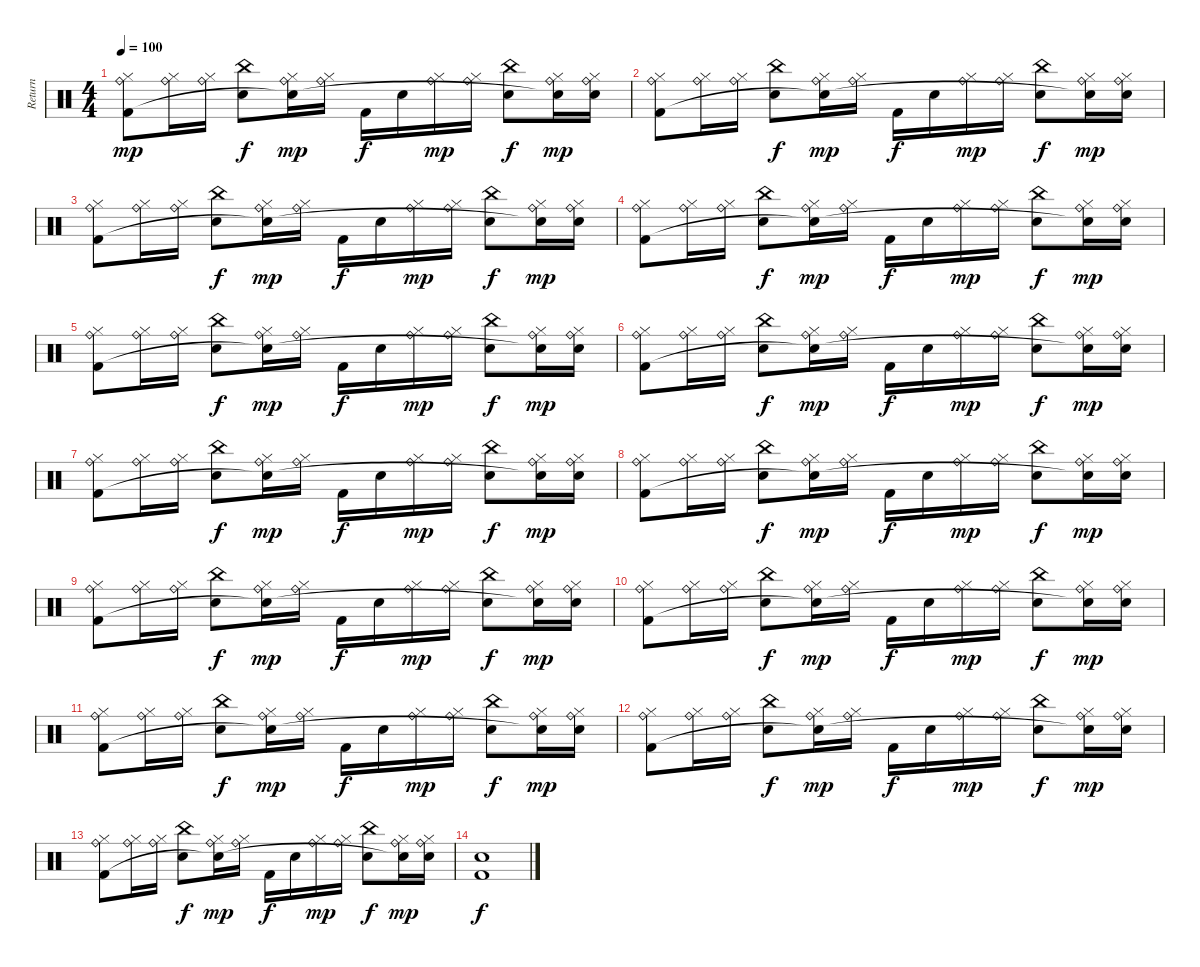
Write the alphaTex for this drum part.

\track ("    Return" "    Return") {instrument percussion}
\staff {score}
\articulation defaults
\ts (4 4)
\tempo 100
\clef neutral
\ks c
("Hi-Hat (closed)" "Ride (bell)" "Kick (hit) 2").8{dy mp} ("Hi-Hat (closed)" "Ride (bell)").16 ("Hi-Hat (closed)" "Ride (bell)").16 ("Electric Snare (hit)" "China (hit)").8{dy f} ("Hi-Hat (closed)" "Ride (bell)" "Snare (hit)"{t}).16{dy mp} ("Hi-Hat (closed)" "Ride (bell)").16 "Kick (hit) 2".16{dy f} "Snare (hit) 2".16 ("Hi-Hat (closed)" "Ride (bell)").16{dy mp} ("Hi-Hat (closed)" "Ride (bell)").16 ("Electric Snare (hit)" "China (hit)").8{dy f} ("Hi-Hat (closed)" "Ride (bell)" "Snare (hit)"{t}).16{dy mp} ("Hi-Hat (closed)" "Ride (bell)" "Snare (hit) 2").16 |
("Hi-Hat (closed)" "Ride (bell)" "Kick (hit) 2").8 ("Hi-Hat (closed)" "Ride (bell)").16 ("Hi-Hat (closed)" "Ride (bell)").16 ("Electric Snare (hit)" "China (hit)").8{dy f} ("Hi-Hat (closed)" "Ride (bell)" "Snare (hit)"{t}).16{dy mp} ("Hi-Hat (closed)" "Ride (bell)").16 "Kick (hit) 2".16{dy f} "Snare (hit) 2".16 ("Hi-Hat (closed)" "Ride (bell)").16{dy mp} ("Hi-Hat (closed)" "Ride (bell)").16 ("Electric Snare (hit)" "China (hit)").8{dy f} ("Hi-Hat (closed)" "Ride (bell)" "Snare (hit)"{t}).16{dy mp} ("Hi-Hat (closed)" "Ride (bell)" "Snare (hit) 2").16 |
("Hi-Hat (closed)" "Ride (bell)" "Kick (hit) 2").8 ("Hi-Hat (closed)" "Ride (bell)").16 ("Hi-Hat (closed)" "Ride (bell)").16 ("Electric Snare (hit)" "China (hit)").8{dy f} ("Hi-Hat (closed)" "Ride (bell)" "Snare (hit)"{t}).16{dy mp} ("Hi-Hat (closed)" "Ride (bell)").16 "Kick (hit) 2".16{dy f} "Snare (hit) 2".16 ("Hi-Hat (closed)" "Ride (bell)").16{dy mp} ("Hi-Hat (closed)" "Ride (bell)").16 ("Electric Snare (hit)" "China (hit)").8{dy f} ("Hi-Hat (closed)" "Ride (bell)" "Snare (hit)"{t}).16{dy mp} ("Hi-Hat (closed)" "Ride (bell)" "Snare (hit) 2").16 |
("Hi-Hat (closed)" "Ride (bell)" "Kick (hit) 2").8 ("Hi-Hat (closed)" "Ride (bell)").16 ("Hi-Hat (closed)" "Ride (bell)").16 ("Electric Snare (hit)" "China (hit)").8{dy f} ("Hi-Hat (closed)" "Ride (bell)" "Snare (hit)"{t}).16{dy mp} ("Hi-Hat (closed)" "Ride (bell)").16 "Kick (hit) 2".16{dy f} "Snare (hit) 2".16 ("Hi-Hat (closed)" "Ride (bell)").16{dy mp} ("Hi-Hat (closed)" "Ride (bell)").16 ("Electric Snare (hit)" "China (hit)").8{dy f} ("Hi-Hat (closed)" "Ride (bell)" "Snare (hit)"{t}).16{dy mp} ("Hi-Hat (closed)" "Ride (bell)" "Snare (hit) 2").16 |
("Hi-Hat (closed)" "Ride (bell)" "Kick (hit) 2").8 ("Hi-Hat (closed)" "Ride (bell)").16 ("Hi-Hat (closed)" "Ride (bell)").16 ("Electric Snare (hit)" "China (hit)").8{dy f} ("Hi-Hat (closed)" "Ride (bell)" "Snare (hit)"{t}).16{dy mp} ("Hi-Hat (closed)" "Ride (bell)").16 "Kick (hit) 2".16{dy f} "Snare (hit) 2".16 ("Hi-Hat (closed)" "Ride (bell)").16{dy mp} ("Hi-Hat (closed)" "Ride (bell)").16 ("Electric Snare (hit)" "China (hit)").8{dy f} ("Hi-Hat (closed)" "Ride (bell)" "Snare (hit)"{t}).16{dy mp} ("Hi-Hat (closed)" "Ride (bell)" "Snare (hit) 2").16 |
("Hi-Hat (closed)" "Ride (bell)" "Kick (hit) 2").8 ("Hi-Hat (closed)" "Ride (bell)").16 ("Hi-Hat (closed)" "Ride (bell)").16 ("Electric Snare (hit)" "China (hit)").8{dy f} ("Hi-Hat (closed)" "Ride (bell)" "Snare (hit)"{t}).16{dy mp} ("Hi-Hat (closed)" "Ride (bell)").16 "Kick (hit) 2".16{dy f} "Snare (hit) 2".16 ("Hi-Hat (closed)" "Ride (bell)").16{dy mp} ("Hi-Hat (closed)" "Ride (bell)").16 ("Electric Snare (hit)" "China (hit)").8{dy f} ("Hi-Hat (closed)" "Ride (bell)" "Snare (hit)"{t}).16{dy mp} ("Hi-Hat (closed)" "Ride (bell)" "Snare (hit) 2").16 |
("Hi-Hat (closed)" "Ride (bell)" "Kick (hit) 2").8 ("Hi-Hat (closed)" "Ride (bell)").16 ("Hi-Hat (closed)" "Ride (bell)").16 ("Electric Snare (hit)" "China (hit)").8{dy f} ("Hi-Hat (closed)" "Ride (bell)" "Snare (hit)"{t}).16{dy mp} ("Hi-Hat (closed)" "Ride (bell)").16 "Kick (hit) 2".16{dy f} "Snare (hit) 2".16 ("Hi-Hat (closed)" "Ride (bell)").16{dy mp} ("Hi-Hat (closed)" "Ride (bell)").16 ("Electric Snare (hit)" "China (hit)").8{dy f} ("Hi-Hat (closed)" "Ride (bell)" "Snare (hit)"{t}).16{dy mp} ("Hi-Hat (closed)" "Ride (bell)" "Snare (hit) 2").16 |
("Hi-Hat (closed)" "Ride (bell)" "Kick (hit) 2").8 ("Hi-Hat (closed)" "Ride (bell)").16 ("Hi-Hat (closed)" "Ride (bell)").16 ("Electric Snare (hit)" "China (hit)").8{dy f} ("Hi-Hat (closed)" "Ride (bell)" "Snare (hit)"{t}).16{dy mp} ("Hi-Hat (closed)" "Ride (bell)").16 "Kick (hit) 2".16{dy f} "Snare (hit) 2".16 ("Hi-Hat (closed)" "Ride (bell)").16{dy mp} ("Hi-Hat (closed)" "Ride (bell)").16 ("Electric Snare (hit)" "China (hit)").8{dy f} ("Hi-Hat (closed)" "Ride (bell)" "Snare (hit)"{t}).16{dy mp} ("Hi-Hat (closed)" "Ride (bell)" "Snare (hit) 2").16 |
("Hi-Hat (closed)" "Ride (bell)" "Kick (hit) 2").8 ("Hi-Hat (closed)" "Ride (bell)").16 ("Hi-Hat (closed)" "Ride (bell)").16 ("Electric Snare (hit)" "China (hit)").8{dy f} ("Hi-Hat (closed)" "Ride (bell)" "Snare (hit)"{t}).16{dy mp} ("Hi-Hat (closed)" "Ride (bell)").16 "Kick (hit) 2".16{dy f} "Snare (hit) 2".16 ("Hi-Hat (closed)" "Ride (bell)").16{dy mp} ("Hi-Hat (closed)" "Ride (bell)").16 ("Electric Snare (hit)" "China (hit)").8{dy f} ("Hi-Hat (closed)" "Ride (bell)" "Snare (hit)"{t}).16{dy mp} ("Hi-Hat (closed)" "Ride (bell)" "Snare (hit) 2").16 |
("Hi-Hat (closed)" "Ride (bell)" "Kick (hit) 2").8 ("Hi-Hat (closed)" "Ride (bell)").16 ("Hi-Hat (closed)" "Ride (bell)").16 ("Electric Snare (hit)" "China (hit)").8{dy f} ("Hi-Hat (closed)" "Ride (bell)" "Snare (hit)"{t}).16{dy mp} ("Hi-Hat (closed)" "Ride (bell)").16 "Kick (hit) 2".16{dy f} "Snare (hit) 2".16 ("Hi-Hat (closed)" "Ride (bell)").16{dy mp} ("Hi-Hat (closed)" "Ride (bell)").16 ("Electric Snare (hit)" "China (hit)").8{dy f} ("Hi-Hat (closed)" "Ride (bell)" "Snare (hit)"{t}).16{dy mp} ("Hi-Hat (closed)" "Ride (bell)" "Snare (hit) 2").16 |
("Hi-Hat (closed)" "Ride (bell)" "Kick (hit) 2").8 ("Hi-Hat (closed)" "Ride (bell)").16 ("Hi-Hat (closed)" "Ride (bell)").16 ("Electric Snare (hit)" "China (hit)").8{dy f} ("Hi-Hat (closed)" "Ride (bell)" "Snare (hit)"{t}).16{dy mp} ("Hi-Hat (closed)" "Ride (bell)").16 "Kick (hit) 2".16{dy f} "Snare (hit) 2".16 ("Hi-Hat (closed)" "Ride (bell)").16{dy mp} ("Hi-Hat (closed)" "Ride (bell)").16 ("Electric Snare (hit)" "China (hit)").8{dy f} ("Hi-Hat (closed)" "Ride (bell)" "Snare (hit)"{t}).16{dy mp} ("Hi-Hat (closed)" "Ride (bell)" "Snare (hit) 2").16 |
("Hi-Hat (closed)" "Ride (bell)" "Kick (hit) 2").8 ("Hi-Hat (closed)" "Ride (bell)").16 ("Hi-Hat (closed)" "Ride (bell)").16 ("Electric Snare (hit)" "China (hit)").8{dy f} ("Hi-Hat (closed)" "Ride (bell)" "Snare (hit)"{t}).16{dy mp} ("Hi-Hat (closed)" "Ride (bell)").16 "Kick (hit) 2".16{dy f} "Snare (hit) 2".16 ("Hi-Hat (closed)" "Ride (bell)").16{dy mp} ("Hi-Hat (closed)" "Ride (bell)").16 ("Electric Snare (hit)" "China (hit)").8{dy f} ("Hi-Hat (closed)" "Ride (bell)" "Snare (hit)"{t}).16{dy mp} ("Hi-Hat (closed)" "Ride (bell)" "Snare (hit) 2").16 |
("Hi-Hat (closed)" "Ride (bell)" "Kick (hit) 2").8 ("Hi-Hat (closed)" "Ride (bell)").16 ("Hi-Hat (closed)" "Ride (bell)").16 ("Electric Snare (hit)" "China (hit)").8{dy f} ("Hi-Hat (closed)" "Ride (bell)" "Snare (hit)"{t}).16{dy mp} ("Hi-Hat (closed)" "Ride (bell)").16 "Kick (hit) 2".16{dy f} "Snare (hit) 2".16 ("Hi-Hat (closed)" "Ride (bell)").16{dy mp} ("Hi-Hat (closed)" "Ride (bell)").16 ("Electric Snare (hit)" "China (hit)").8{dy f} ("Hi-Hat (closed)" "Ride (bell)" "Snare (hit)"{t}).16{dy mp} ("Hi-Hat (closed)" "Ride (bell)" "Snare (hit) 2").16 |
("Snare (hit) 2" "Kick (hit) 2").1{dy f}
